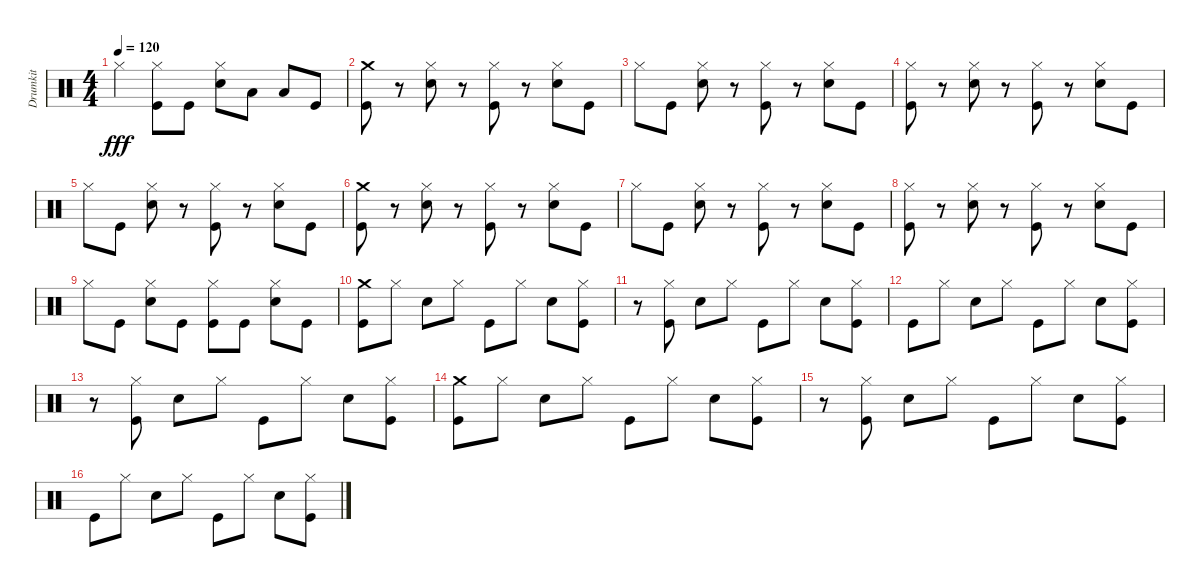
\track ("Drumkit" "Drumkit") {instrument percussion}
\staff {score}
\articulation defaults
\ts (4 4)
\tempo 120
\clef neutral
\ks c "Hi-Hat (closed)".4{dy fff}
("Hi-Hat (closed)" "Kick (hit)").8 "Kick (hit)".8 ("Hi-Hat (closed)" "Snare (hit) 2").8 "Low Tom (hit)".8 "Low Tom (hit)".8 "Kick (hit)".8 |
("Kick (hit)" "Crash medium (hit)").8 r.8 ("Hi-Hat (closed)" "Snare (hit) 2").8 r.8 ("Hi-Hat (closed)" "Kick (hit)").8 r.8 ("Hi-Hat (closed)" "Snare (hit) 2").8 "Kick (hit)".8 |
"Hi-Hat (closed)".8 "Kick (hit)".8 ("Hi-Hat (closed)" "Snare (hit) 2").8 r.8 ("Hi-Hat (closed)" "Kick (hit)").8 r.8 ("Hi-Hat (closed)" "Snare (hit) 2").8 "Kick (hit)".8 |
("Kick (hit)" "Hi-Hat (closed)").8 r.8 ("Hi-Hat (closed)" "Snare (hit) 2").8 r.8 ("Hi-Hat (closed)" "Kick (hit)").8 r.8 ("Hi-Hat (closed)" "Snare (hit) 2").8 "Kick (hit)".8 |
"Hi-Hat (closed)".8 "Kick (hit)".8 ("Hi-Hat (closed)" "Snare (hit) 2").8 r.8 ("Hi-Hat (closed)" "Kick (hit)").8 r.8 ("Hi-Hat (closed)" "Snare (hit) 2").8 "Kick (hit)".8 |
("Kick (hit)" "Crash medium (hit)").8 r.8 ("Hi-Hat (closed)" "Snare (hit) 2").8 r.8 ("Hi-Hat (closed)" "Kick (hit)").8 r.8 ("Hi-Hat (closed)" "Snare (hit) 2").8 "Kick (hit)".8 |
"Hi-Hat (closed)".8 "Kick (hit)".8 ("Hi-Hat (closed)" "Snare (hit) 2").8 r.8 ("Hi-Hat (closed)" "Kick (hit)").8 r.8 ("Hi-Hat (closed)" "Snare (hit) 2").8 "Kick (hit)".8 |
("Kick (hit)" "Hi-Hat (closed)").8 r.8 ("Hi-Hat (closed)" "Snare (hit) 2").8 r.8 ("Hi-Hat (closed)" "Kick (hit)").8 r.8 ("Hi-Hat (closed)" "Snare (hit) 2").8 "Kick (hit)".8 |
"Hi-Hat (closed)".8 "Kick (hit)".8 ("Hi-Hat (closed)" "Snare (hit) 2").8 "Kick (hit)".8 ("Hi-Hat (closed)" "Kick (hit)").8 "Kick (hit)".8 ("Hi-Hat (closed)" "Snare (hit) 2").8 "Kick (hit)".8 |
("Kick (hit)" "Crash medium (hit)").8 "Hi-Hat (closed)".8 "Snare (hit) 2".8 "Hi-Hat (closed)".8 "Kick (hit)".8 "Hi-Hat (closed)".8 "Snare (hit) 2".8 ("Kick (hit)" "Hi-Hat (closed)").8 |
r.8 ("Kick (hit)" "Hi-Hat (closed)").8 "Snare (hit) 2".8 "Hi-Hat (closed)".8 "Kick (hit)".8 "Hi-Hat (closed)".8 "Snare (hit) 2".8 ("Kick (hit)" "Hi-Hat (closed)").8 |
"Kick (hit)".8 "Hi-Hat (closed)".8 "Snare (hit) 2".8 "Hi-Hat (closed)".8 "Kick (hit)".8 "Hi-Hat (closed)".8 "Snare (hit) 2".8 ("Kick (hit)" "Hi-Hat (closed)").8 |
r.8 ("Kick (hit)" "Hi-Hat (closed)").8 "Snare (hit) 2".8 "Hi-Hat (closed)".8 "Kick (hit)".8 "Hi-Hat (closed)".8 "Snare (hit) 2".8 ("Kick (hit)" "Hi-Hat (closed)").8 |
("Kick (hit)" "Crash medium (hit)").8 "Hi-Hat (closed)".8 "Snare (hit) 2".8 "Hi-Hat (closed)".8 "Kick (hit)".8 "Hi-Hat (closed)".8 "Snare (hit) 2".8 ("Kick (hit)" "Hi-Hat (closed)").8 |
r.8 ("Kick (hit)" "Hi-Hat (closed)").8 "Snare (hit) 2".8 "Hi-Hat (closed)".8 "Kick (hit)".8 "Hi-Hat (closed)".8 "Snare (hit) 2".8 ("Kick (hit)" "Hi-Hat (closed)").8 |
"Kick (hit)".8 "Hi-Hat (closed)".8 "Snare (hit) 2".8 "Hi-Hat (closed)".8 "Kick (hit)".8 "Hi-Hat (closed)".8 "Snare (hit) 2".8 ("Kick (hit)" "Hi-Hat (closed)").8
